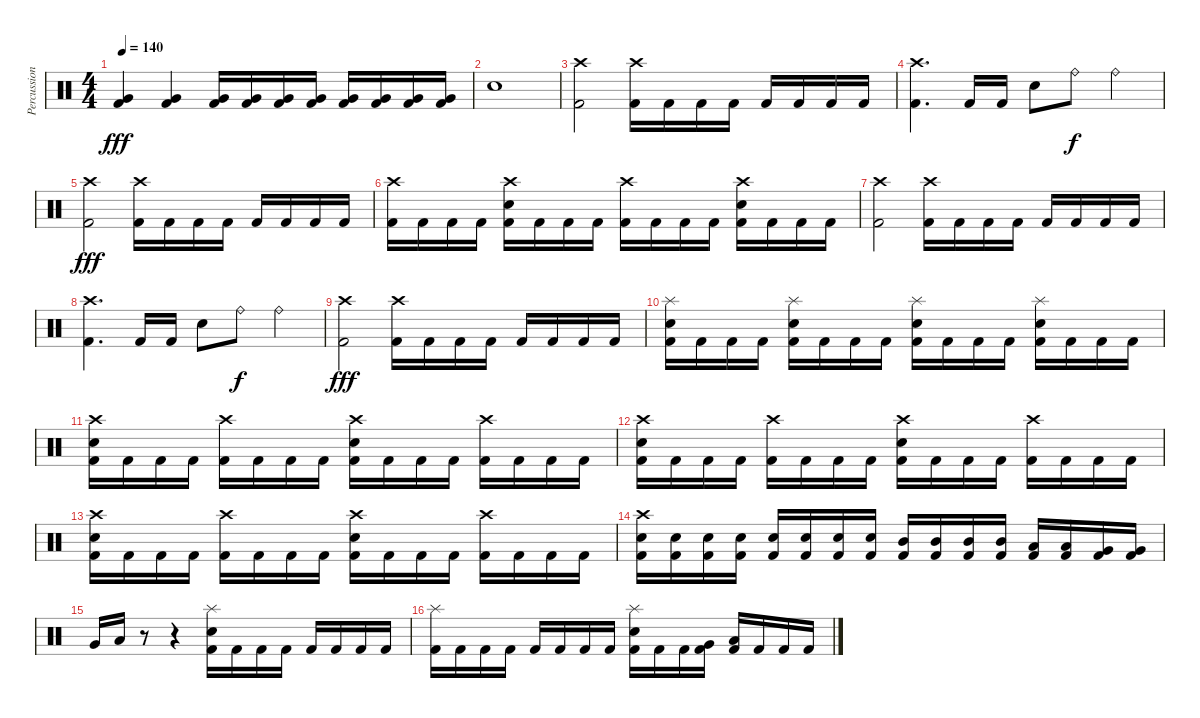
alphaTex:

\track ("Percussion" "Percussion") {instrument percussion}
\staff {score}
\articulation defaults
\ts (4 4)
\tempo 140
\clef neutral
\ks c
("Very Low Tom (hit)" "Kick (hit) 2").4{dy fff} ("Very Low Tom (hit)" "Kick (hit) 2").4 ("Very Low Tom (hit)" "Kick (hit) 2").16 ("Very Low Tom (hit)" "Kick (hit) 2").16 ("Very Low Tom (hit)" "Kick (hit) 2").16 ("Very Low Tom (hit)" "Kick (hit) 2").16 ("Very Low Tom (hit)" "Kick (hit) 2").16 ("Very Low Tom (hit)" "Kick (hit) 2").16 ("Very Low Tom (hit)" "Kick (hit) 2").16 ("Very Low Tom (hit)" "Kick (hit) 2").16 |
"Electric Snare (hit)".1 |
("Crash high (hit)" "Kick (hit) 2").2 ("Crash high (hit)" "Kick (hit) 2").16 "Kick (hit) 2".16 "Kick (hit) 2".16 "Kick (hit) 2".16 "Kick (hit) 2".16 "Kick (hit) 2".16 "Kick (hit) 2".16 "Kick (hit) 2".16 |
("Crash high (hit)" "Kick (hit) 2").4{d} "Kick (hit) 2".16 "Kick (hit) 2".16 "Electric Snare (hit)".8 "Ride (bell)".8{dy f} "Ride (bell)".4 |
("Crash high (hit)" "Kick (hit) 2").2{dy fff} ("Crash high (hit)" "Kick (hit) 2").16 "Kick (hit) 2".16 "Kick (hit) 2".16 "Kick (hit) 2".16 "Kick (hit) 2".16 "Kick (hit) 2".16 "Kick (hit) 2".16 "Kick (hit) 2".16 |
("Crash high (hit)" "Kick (hit) 2").16 "Kick (hit) 2".16 "Kick (hit) 2".16 "Kick (hit) 2".16 ("Crash high (hit)" "Electric Snare (hit)" "Kick (hit) 2").16 "Kick (hit) 2".16 "Kick (hit) 2".16 "Kick (hit) 2".16 ("Crash high (hit)" "Kick (hit) 2").16 "Kick (hit) 2".16 "Kick (hit) 2".16 "Kick (hit) 2".16 ("Crash high (hit)" "Electric Snare (hit)" "Kick (hit) 2").16 "Kick (hit) 2".16 "Kick (hit) 2".16 "Kick (hit) 2".16 |
("Crash high (hit)" "Kick (hit) 2").2 ("Crash high (hit)" "Kick (hit) 2").16 "Kick (hit) 2".16 "Kick (hit) 2".16 "Kick (hit) 2".16 "Kick (hit) 2".16 "Kick (hit) 2".16 "Kick (hit) 2".16 "Kick (hit) 2".16 |
("Crash high (hit)" "Kick (hit) 2").4{d} "Kick (hit) 2".16 "Kick (hit) 2".16 "Electric Snare (hit)".8 "Ride (bell)".8{dy f} "Ride (bell)".4 |
("Crash high (hit)" "Kick (hit) 2").2{dy fff} ("Crash high (hit)" "Kick (hit) 2").16 "Kick (hit) 2".16 "Kick (hit) 2".16 "Kick (hit) 2".16 "Kick (hit) 2".16 "Kick (hit) 2".16 "Kick (hit) 2".16 "Kick (hit) 2".16 |
("Splash (hit)" "Electric Snare (hit)" "Kick (hit) 2").16 "Kick (hit) 2".16 "Kick (hit) 2".16 "Kick (hit) 2".16 ("Splash (hit)" "Electric Snare (hit)" "Kick (hit) 2").16 "Kick (hit) 2".16 "Kick (hit) 2".16 "Kick (hit) 2".16 ("Splash (hit)" "Electric Snare (hit)" "Kick (hit) 2").16 "Kick (hit) 2".16 "Kick (hit) 2".16 "Kick (hit) 2".16 ("Splash (hit)" "Electric Snare (hit)" "Kick (hit) 2").16 "Kick (hit) 2".16 "Kick (hit) 2".16 "Kick (hit) 2".16 |
("Crash high (hit)" "Electric Snare (hit)" "Kick (hit) 2").16 "Kick (hit) 2".16 "Kick (hit) 2".16 "Kick (hit) 2".16 ("Crash high (hit)" "Kick (hit) 2").16 "Kick (hit) 2".16 "Kick (hit) 2".16 "Kick (hit) 2".16 ("Crash high (hit)" "Electric Snare (hit)" "Kick (hit) 2").16 "Kick (hit) 2".16 "Kick (hit) 2".16 "Kick (hit) 2".16 ("Crash high (hit)" "Kick (hit) 2").16 "Kick (hit) 2".16 "Kick (hit) 2".16 "Kick (hit) 2".16 |
("Crash high (hit)" "Electric Snare (hit)" "Kick (hit) 2").16 "Kick (hit) 2".16 "Kick (hit) 2".16 "Kick (hit) 2".16 ("Crash high (hit)" "Kick (hit) 2").16 "Kick (hit) 2".16 "Kick (hit) 2".16 "Kick (hit) 2".16 ("Crash high (hit)" "Electric Snare (hit)" "Kick (hit) 2").16 "Kick (hit) 2".16 "Kick (hit) 2".16 "Kick (hit) 2".16 ("Crash high (hit)" "Kick (hit) 2").16 "Kick (hit) 2".16 "Kick (hit) 2".16 "Kick (hit) 2".16 |
("Crash high (hit)" "Electric Snare (hit)" "Kick (hit) 2").16 "Kick (hit) 2".16 "Kick (hit) 2".16 "Kick (hit) 2".16 ("Crash high (hit)" "Kick (hit) 2").16 "Kick (hit) 2".16 "Kick (hit) 2".16 "Kick (hit) 2".16 ("Crash high (hit)" "Electric Snare (hit)" "Kick (hit) 2").16 "Kick (hit) 2".16 "Kick (hit) 2".16 "Kick (hit) 2".16 ("Crash high (hit)" "Kick (hit) 2").16 "Kick (hit) 2".16 "Kick (hit) 2".16 "Kick (hit) 2".16 |
("Crash high (hit)" "Electric Snare (hit)" "Kick (hit) 2").16 ("Electric Snare (hit)" "Kick (hit) 2").16 ("Electric Snare (hit)" "Kick (hit) 2").16 ("Electric Snare (hit)" "Kick (hit) 2").16 ("Electric Snare (hit)" "Kick (hit) 2").16 ("Electric Snare (hit)" "Kick (hit) 2").16 ("Electric Snare (hit)" "Kick (hit) 2").16 ("Electric Snare (hit)" "Kick (hit) 2").16 ("Mid Tom (hit)" "Kick (hit) 2").16 ("Mid Tom (hit)" "Kick (hit) 2").16 ("Mid Tom (hit)" "Kick (hit) 2").16 ("Mid Tom (hit)" "Kick (hit) 2").16 ("Low Tom (hit)" "Kick (hit) 2").16 ("Low Tom (hit)" "Kick (hit) 2").16 ("Very Low Tom (hit)" "Kick (hit) 2").16 ("Very Low Tom (hit)" "Kick (hit) 2").16 |
"Very Low Tom (hit)".16 "Low Floor Tom (hit)".16 r.8 r.4 ("Splash (hit)" "Electric Snare (hit)" "Kick (hit) 2").16 "Kick (hit) 2".16 "Kick (hit) 2".16 "Kick (hit) 2".16 "Kick (hit) 2".16 "Kick (hit) 2".16 "Kick (hit) 2".16 "Kick (hit) 2".16 |
("Splash (hit)" "Kick (hit) 2").16 "Kick (hit) 2".16 "Kick (hit) 2".16 "Kick (hit) 2".16 "Kick (hit) 2".16 "Kick (hit) 2".16 "Kick (hit) 2".16 "Kick (hit) 2".16 ("Splash (hit)" "Electric Snare (hit)" "Kick (hit) 2").16 "Kick (hit) 2".16 "Kick (hit) 2".16 ("Very Low Tom (hit)" "Kick (hit) 2").16 ("Low Floor Tom (hit)" "Kick (hit) 2").16 "Kick (hit) 2".16 "Kick (hit) 2".16 "Kick (hit) 2".16
